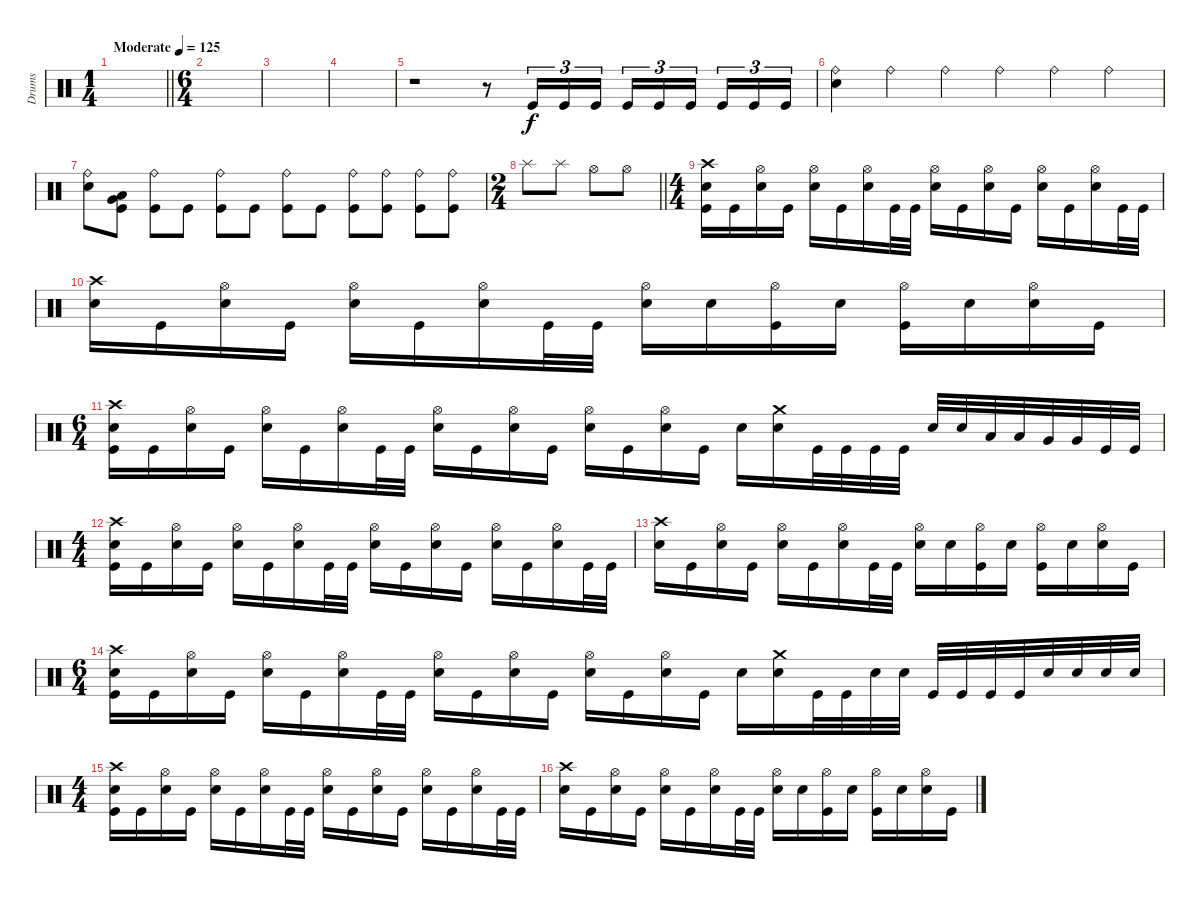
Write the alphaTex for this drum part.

\track ("Drums" "Drums") {instrument percussion}
\staff
\articulation defaults
\ts (1 4)
\tempo (125 "Moderate")
\clef neutral
\barLineRight lightlight
\ks c
|
\ts (6 4)
|
|
|
r.1 r.8 "Kick (hit)".16{tu (3 2)} "Kick (hit)".16{tu (3 2)} "Kick (hit)".16{tu (3 2) beam splitsecondary} "Kick (hit)".16{tu (3 2)} "Kick (hit)".16{tu (3 2)} "Kick (hit)".16{tu (3 2) beam splitsecondary} "Kick (hit)".16{tu (3 2)} "Kick (hit)".16{tu (3 2)} "Kick (hit)".16{tu (3 2)} |
("Ride (bell)" "Electric Snare (hit)").4 "Ride (bell)".4 "Ride (bell)".4 "Ride (bell)".4 "Ride (bell)".4 "Ride (bell)".4 |
("Ride (bell)" "Electric Snare (hit)").8 ("Very Low Tom (hit)" "Low Floor Tom (hit)" "Kick (hit)").8 ("Ride (bell)" "Kick (hit)").8 "Kick (hit)".8 ("Ride (bell)" "Kick (hit)").8 "Kick (hit)".8 ("Ride (bell)" "Kick (hit)").8 "Kick (hit)".8 ("Ride (bell)" "Kick (hit)").8 ("Ride (bell)" "Kick (hit)").8 ("Ride (bell)" "Kick (hit)").8 ("Ride (bell)" "Kick (hit)").8 |
\ts (2 4)
\barLineRight lightlight "Splash (hit)".8 "Splash (hit)".8 "Hi-Hat (open)".8 "Hi-Hat (open)".8
|
\ts (4 4)
\section ("" "")
("Crash high (hit)" "Electric Snare (hit)" "Kick (hit)").16 "Kick (hit)".16 ("Hi-Hat (open)" "Electric Snare (hit)").16 "Kick (hit)".16 ("Hi-Hat (open)" "Electric Snare (hit)").16 "Kick (hit)".16 ("Hi-Hat (open)" "Electric Snare (hit)").16 "Kick (hit)".32 "Kick (hit)".32 ("Hi-Hat (open)" "Electric Snare (hit)").16 "Kick (hit)".16 ("Hi-Hat (open)" "Electric Snare (hit)").16 "Kick (hit)".16 ("Hi-Hat (open)" "Electric Snare (hit)").16 "Kick (hit)".16 ("Hi-Hat (open)" "Electric Snare (hit)").16 "Kick (hit)".32 "Kick (hit)".32 |
("Crash high (hit)" "Electric Snare (hit)").16 "Kick (hit)".16 ("Hi-Hat (open)" "Electric Snare (hit)").16 "Kick (hit)".16 ("Hi-Hat (open)" "Electric Snare (hit)").16 "Kick (hit)".16 ("Hi-Hat (open)" "Electric Snare (hit)").16 "Kick (hit)".32 "Kick (hit)".32 ("Hi-Hat (open)" "Electric Snare (hit)").16 "Electric Snare (hit)".16 ("Hi-Hat (open)" "Kick (hit)").16 "Electric Snare (hit)".16 ("Hi-Hat (open)" "Kick (hit)").16 "Electric Snare (hit)".16 ("Hi-Hat (open)" "Electric Snare (hit)").16 "Kick (hit)".16 |
\ts (6 4)
("Crash high (hit)" "Electric Snare (hit)" "Kick (hit)").16 "Kick (hit)".16 ("Hi-Hat (open)" "Electric Snare (hit)").16 "Kick (hit)".16 ("Hi-Hat (open)" "Electric Snare (hit)").16 "Kick (hit)".16 ("Hi-Hat (open)" "Electric Snare (hit)").16 "Kick (hit)".32 "Kick (hit)".32 ("Hi-Hat (open)" "Electric Snare (hit)").16 "Kick (hit)".16 ("Hi-Hat (open)" "Electric Snare (hit)").16 "Kick (hit)".16 ("Hi-Hat (open)" "Electric Snare (hit)").16 "Kick (hit)".16 ("Hi-Hat (open)" "Electric Snare (hit)").16 "Kick (hit)".16 "Electric Snare (hit)".16 ("Crash medium (hit)" "Electric Snare (hit)").16 "Kick (hit)".32 "Kick (hit)".32 "Kick (hit)".32 "Kick (hit)".32 "Electric Snare (hit)".32 "Electric Snare (hit)".32 "Low Tom (hit)".32 "Low Tom (hit)".32 "Very Low Tom (hit)".32 "Very Low Tom (hit)".32 "Kick (hit)".32 "Kick (hit)".32 |
\ts (4 4)
("Crash high (hit)" "Electric Snare (hit)" "Kick (hit)").16 "Kick (hit)".16 ("Hi-Hat (open)" "Electric Snare (hit)").16 "Kick (hit)".16 ("Hi-Hat (open)" "Electric Snare (hit)").16 "Kick (hit)".16 ("Hi-Hat (open)" "Electric Snare (hit)").16 "Kick (hit)".32 "Kick (hit)".32 ("Hi-Hat (open)" "Electric Snare (hit)").16 "Kick (hit)".16 ("Hi-Hat (open)" "Electric Snare (hit)").16 "Kick (hit)".16 ("Hi-Hat (open)" "Electric Snare (hit)").16 "Kick (hit)".16 ("Hi-Hat (open)" "Electric Snare (hit)").16 "Kick (hit)".32 "Kick (hit)".32 |
("Crash high (hit)" "Electric Snare (hit)").16 "Kick (hit)".16 ("Hi-Hat (open)" "Electric Snare (hit)").16 "Kick (hit)".16 ("Hi-Hat (open)" "Electric Snare (hit)").16 "Kick (hit)".16 ("Hi-Hat (open)" "Electric Snare (hit)").16 "Kick (hit)".32 "Kick (hit)".32 ("Hi-Hat (open)" "Electric Snare (hit)").16 "Electric Snare (hit)".16 ("Hi-Hat (open)" "Kick (hit)").16 "Electric Snare (hit)".16 ("Hi-Hat (open)" "Kick (hit)").16 "Electric Snare (hit)".16 ("Hi-Hat (open)" "Electric Snare (hit)").16 "Kick (hit)".16 |
\ts (6 4)
("Crash high (hit)" "Electric Snare (hit)" "Kick (hit)").16 "Kick (hit)".16 ("Hi-Hat (open)" "Electric Snare (hit)").16 "Kick (hit)".16 ("Hi-Hat (open)" "Electric Snare (hit)").16 "Kick (hit)".16 ("Hi-Hat (open)" "Electric Snare (hit)").16 "Kick (hit)".32 "Kick (hit)".32 ("Hi-Hat (open)" "Electric Snare (hit)").16 "Kick (hit)".16 ("Hi-Hat (open)" "Electric Snare (hit)").16 "Kick (hit)".16 ("Hi-Hat (open)" "Electric Snare (hit)").16 "Kick (hit)".16 ("Hi-Hat (open)" "Electric Snare (hit)").16 "Kick (hit)".16 "Electric Snare (hit)".16 ("Crash medium (hit)" "Electric Snare (hit)").16 "Kick (hit)".32 "Kick (hit)".32 "Electric Snare (hit)".32 "Electric Snare (hit)".32 "Kick (hit)".32 "Kick (hit)".32 "Kick (hit)".32 "Kick (hit)".32 "Electric Snare (hit)".32 "Electric Snare (hit)".32 "Electric Snare (hit)".32 "Electric Snare (hit)".32 |
\ts (4 4)
("Crash high (hit)" "Electric Snare (hit)" "Kick (hit)").16 "Kick (hit)".16 ("Hi-Hat (open)" "Electric Snare (hit)").16 "Kick (hit)".16 ("Hi-Hat (open)" "Electric Snare (hit)").16 "Kick (hit)".16 ("Hi-Hat (open)" "Electric Snare (hit)").16 "Kick (hit)".32 "Kick (hit)".32 ("Hi-Hat (open)" "Electric Snare (hit)").16 "Kick (hit)".16 ("Hi-Hat (open)" "Electric Snare (hit)").16 "Kick (hit)".16 ("Hi-Hat (open)" "Electric Snare (hit)").16 "Kick (hit)".16 ("Hi-Hat (open)" "Electric Snare (hit)").16 "Kick (hit)".32 "Kick (hit)".32 |
("Crash high (hit)" "Electric Snare (hit)").16 "Kick (hit)".16 ("Hi-Hat (open)" "Electric Snare (hit)").16 "Kick (hit)".16 ("Hi-Hat (open)" "Electric Snare (hit)").16 "Kick (hit)".16 ("Hi-Hat (open)" "Electric Snare (hit)").16 "Kick (hit)".32 "Kick (hit)".32 ("Hi-Hat (open)" "Electric Snare (hit)").16 "Electric Snare (hit)".16 ("Hi-Hat (open)" "Kick (hit)").16 "Electric Snare (hit)".16 ("Hi-Hat (open)" "Kick (hit)").16 "Electric Snare (hit)".16 ("Hi-Hat (open)" "Electric Snare (hit)").16 "Kick (hit)".16
